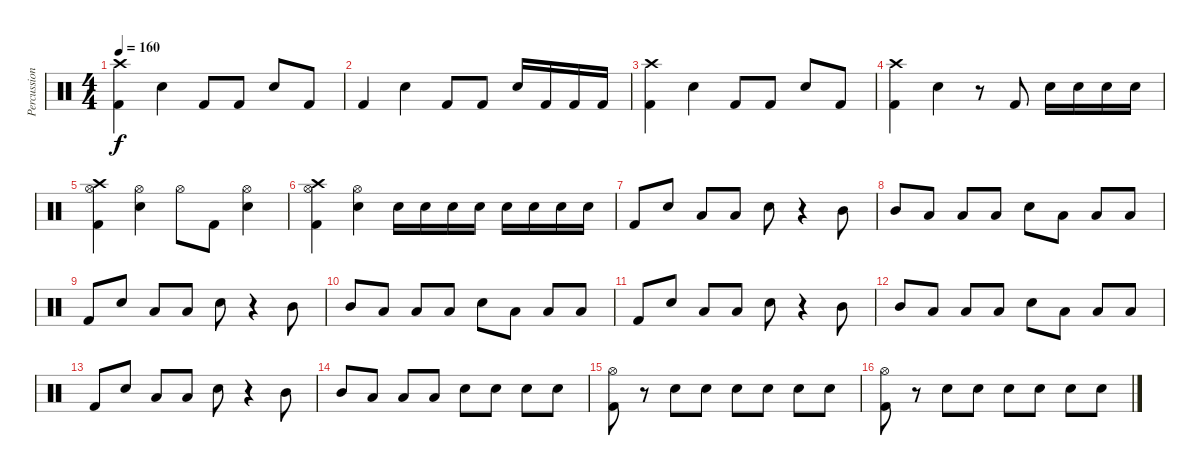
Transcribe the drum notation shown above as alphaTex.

\track ("Percussion" "Percussion") {instrument percussion}
\staff {score}
\articulation defaults
\ts (4 4)
\tempo 160
\clef neutral
\ks c
("Kick (hit) 2" "Crash high (hit)").4{dy f} "Electric Snare (hit)".4 "Kick (hit) 2".8 "Kick (hit) 2".8 "Electric Snare (hit)".8 "Kick (hit) 2".8 |
"Kick (hit) 2".4 "Electric Snare (hit)".4 "Kick (hit) 2".8 "Kick (hit) 2".8 "Electric Snare (hit)".16 "Kick (hit) 2".16 "Kick (hit) 2".16 "Kick (hit) 2".16 |
("Kick (hit) 2" "Crash high (hit)").4 "Electric Snare (hit)".4 "Kick (hit) 2".8 "Kick (hit) 2".8 "Electric Snare (hit)".8 "Kick (hit) 2".8 |
("Kick (hit) 2" "Crash high (hit)").4 "Electric Snare (hit)".4 r.8 "Kick (hit) 2".8 "Electric Snare (hit)".16 "Electric Snare (hit)".16 "Electric Snare (hit)".16 "Electric Snare (hit)".16 |
("Hi-Hat (open)" "Kick (hit) 2" "Crash high (hit)").4 ("Hi-Hat (open)" "Electric Snare (hit)").4 "Hi-Hat (open)".8 "Kick (hit) 2".8 ("Hi-Hat (open)" "Electric Snare (hit)").4 |
("Hi-Hat (open)" "Kick (hit) 2" "Crash high (hit)").4 ("Hi-Hat (open)" "Electric Snare (hit)").4 "Electric Snare (hit)".16 "Electric Snare (hit)".16 "Electric Snare (hit)".16 "Electric Snare (hit)".16 "Electric Snare (hit)".16 "Electric Snare (hit)".16 "Electric Snare (hit)".16 "Electric Snare (hit)".16 |
"Kick (hit) 2".8 "Electric Snare (hit)".8 "Low Tom (hit)".8 "Low Tom (hit)".8 "Electric Snare (hit)".8 r.4 "Mid Tom (hit)".8 |
"Mid Tom (hit)".8 "Low Tom (hit)".8 "Low Tom (hit)".8 "Low Tom (hit)".8 "Electric Snare (hit)".8 "Low Tom (hit)".8 "Low Tom (hit)".8 "Low Tom (hit)".8 |
"Kick (hit) 2".8 "Electric Snare (hit)".8 "Low Tom (hit)".8 "Low Tom (hit)".8 "Electric Snare (hit)".8 r.4 "Mid Tom (hit)".8 |
"Mid Tom (hit)".8 "Low Tom (hit)".8 "Low Tom (hit)".8 "Low Tom (hit)".8 "Electric Snare (hit)".8 "Low Tom (hit)".8 "Low Tom (hit)".8 "Low Tom (hit)".8 |
"Kick (hit) 2".8 "Electric Snare (hit)".8 "Low Tom (hit)".8 "Low Tom (hit)".8 "Electric Snare (hit)".8 r.4 "Mid Tom (hit)".8 |
"Mid Tom (hit)".8 "Low Tom (hit)".8 "Low Tom (hit)".8 "Low Tom (hit)".8 "Electric Snare (hit)".8 "Low Tom (hit)".8 "Low Tom (hit)".8 "Low Tom (hit)".8 |
"Kick (hit) 2".8 "Electric Snare (hit)".8 "Low Tom (hit)".8 "Low Tom (hit)".8 "Electric Snare (hit)".8 r.4 "Mid Tom (hit)".8 |
"Mid Tom (hit)".8 "Low Tom (hit)".8 "Low Tom (hit)".8 "Low Tom (hit)".8 "Electric Snare (hit)".8 "Electric Snare (hit)".8 "Electric Snare (hit)".8 "Electric Snare (hit)".8 |
("Kick (hit) 2" "Hi-Hat (open)").8 r.8 "Electric Snare (hit)".8 "Electric Snare (hit)".8 "Electric Snare (hit)".8 "Electric Snare (hit)".8 "Electric Snare (hit)".8 "Electric Snare (hit)".8 |
("Kick (hit) 2" "Hi-Hat (open)").8 r.8 "Electric Snare (hit)".8 "Electric Snare (hit)".8 "Electric Snare (hit)".8 "Electric Snare (hit)".8 "Electric Snare (hit)".8 "Electric Snare (hit)".8
